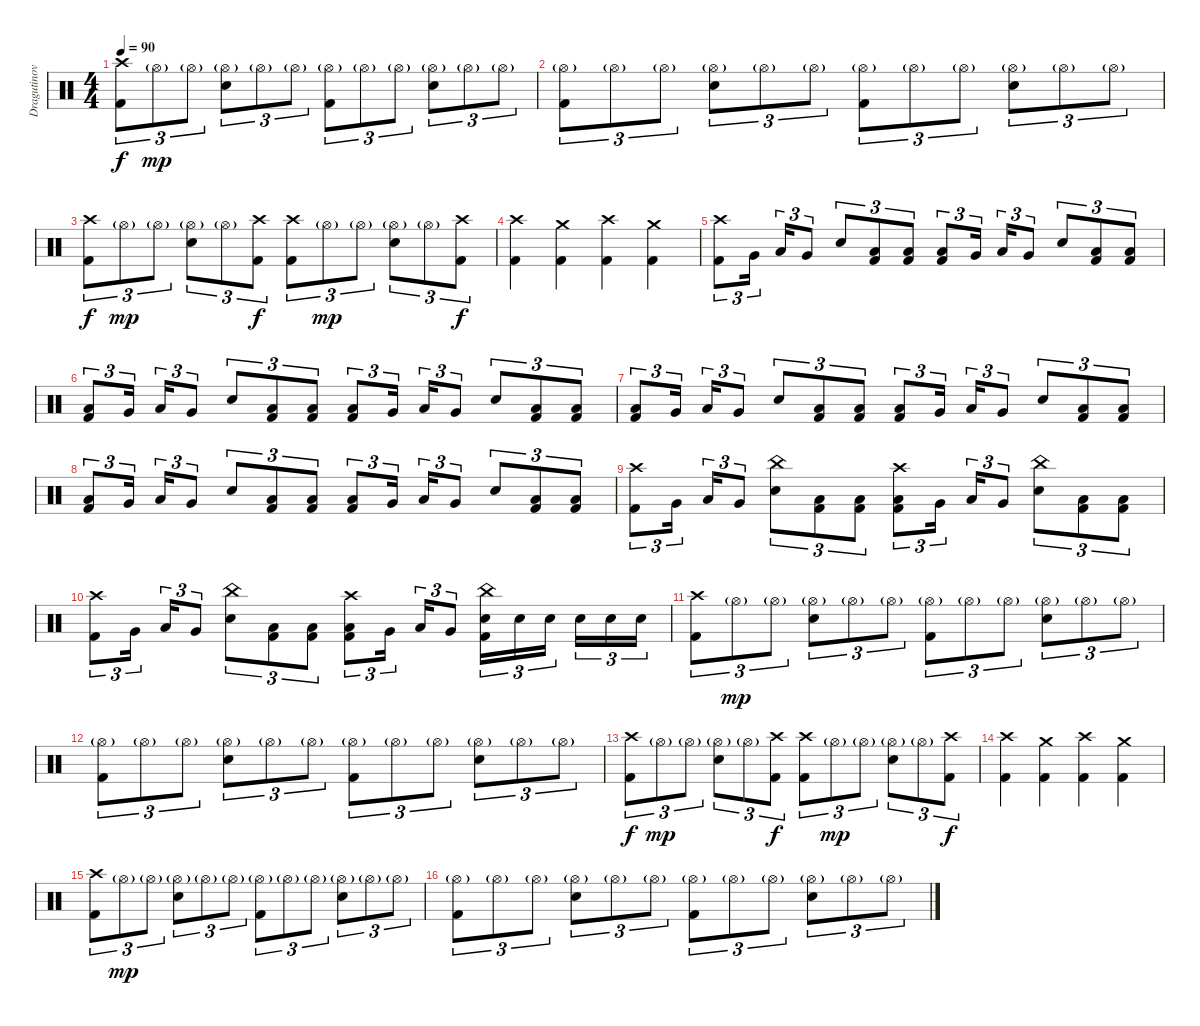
\track ("Dragutinovic" "Dragutinov") {instrument percussion}
\staff {score}
\articulation defaults
\ts (4 4)
\tempo 90
\clef neutral
\ks c
("Crash high (hit)" "Kick (hit) 2").8{tu (3 2) dy f} "Hi-Hat (open)"{g}.8{tu (3 2) dy mp} "Hi-Hat (open)"{g}.8{tu (3 2)} ("Hi-Hat (open)"{g} "Electric Snare (hit)").8{tu (3 2)} "Hi-Hat (open)"{g}.8{tu (3 2)} "Hi-Hat (open)"{g}.8{tu (3 2)} ("Hi-Hat (open)"{g} "Kick (hit) 2").8{tu (3 2)} "Hi-Hat (open)"{g}.8{tu (3 2)} "Hi-Hat (open)"{g}.8{tu (3 2)} ("Hi-Hat (open)"{g} "Electric Snare (hit)").8{tu (3 2)} "Hi-Hat (open)"{g}.8{tu (3 2)} "Hi-Hat (open)"{g}.8{tu (3 2)} |
("Hi-Hat (open)"{g} "Kick (hit) 2").8{tu (3 2)} "Hi-Hat (open)"{g}.8{tu (3 2)} "Hi-Hat (open)"{g}.8{tu (3 2)} ("Hi-Hat (open)"{g} "Electric Snare (hit)").8{tu (3 2)} "Hi-Hat (open)"{g}.8{tu (3 2)} "Hi-Hat (open)"{g}.8{tu (3 2)} ("Hi-Hat (open)"{g} "Kick (hit) 2").8{tu (3 2)} "Hi-Hat (open)"{g}.8{tu (3 2)} "Hi-Hat (open)"{g}.8{tu (3 2)} ("Hi-Hat (open)"{g} "Electric Snare (hit)").8{tu (3 2)} "Hi-Hat (open)"{g}.8{tu (3 2)} "Hi-Hat (open)"{g}.8{tu (3 2)} |
("Crash high (hit)" "Kick (hit) 2").8{tu (3 2) dy f} "Hi-Hat (open)"{g}.8{tu (3 2) dy mp} "Hi-Hat (open)"{g}.8{tu (3 2)} ("Hi-Hat (open)"{g} "Electric Snare (hit)").8{tu (3 2)} "Hi-Hat (open)"{g}.8{tu (3 2)} ("Crash high (hit)" "Kick (hit) 2").8{tu (3 2) dy f} ("Crash high (hit)" "Kick (hit) 2").8{tu (3 2)} "Hi-Hat (open)"{g}.8{tu (3 2) dy mp} "Hi-Hat (open)"{g}.8{tu (3 2)} ("Hi-Hat (open)"{g} "Electric Snare (hit)").8{tu (3 2)} "Hi-Hat (open)"{g}.8{tu (3 2)} ("Crash high (hit)" "Kick (hit) 2").8{tu (3 2) dy f} |
("Crash high (hit)" "Kick (hit) 2").4 ("Crash medium (hit)" "Kick (hit) 2").4 ("Crash high (hit)" "Kick (hit) 2").4 ("Crash medium (hit)" "Kick (hit) 2").4 |
("Crash high (hit)" "Kick (hit) 2").8{tu (3 2)} "Very Low Tom (hit)".16{tu (3 2)} "Low Tom (hit)".16{tu (3 2)} "Very Low Tom (hit)".8{tu (3 2)} "Electric Snare (hit)".8{tu (3 2)} ("Low Floor Tom (hit)" "Kick (hit) 2").8{tu (3 2)} ("Low Floor Tom (hit)" "Kick (hit) 2").8{tu (3 2)} ("Low Tom (hit)" "Kick (hit) 2").8{tu (3 2)} "Very Low Tom (hit)".16{tu (3 2)} "Low Tom (hit)".16{tu (3 2)} "Very Low Tom (hit)".8{tu (3 2)} "Electric Snare (hit)".8{tu (3 2)} ("Low Floor Tom (hit)" "Kick (hit) 2").8{tu (3 2)} ("Low Floor Tom (hit)" "Kick (hit) 2").8{tu (3 2)} |
("Low Tom (hit)" "Kick (hit) 2").8{tu (3 2)} "Very Low Tom (hit)".16{tu (3 2)} "Low Tom (hit)".16{tu (3 2)} "Very Low Tom (hit)".8{tu (3 2)} "Electric Snare (hit)".8{tu (3 2)} ("Low Floor Tom (hit)" "Kick (hit) 2").8{tu (3 2)} ("Low Floor Tom (hit)" "Kick (hit) 2").8{tu (3 2)} ("Low Tom (hit)" "Kick (hit) 2").8{tu (3 2)} "Very Low Tom (hit)".16{tu (3 2)} "Low Tom (hit)".16{tu (3 2)} "Very Low Tom (hit)".8{tu (3 2)} "Electric Snare (hit)".8{tu (3 2)} ("Low Floor Tom (hit)" "Kick (hit) 2").8{tu (3 2)} ("Low Floor Tom (hit)" "Kick (hit) 2").8{tu (3 2)} |
("Low Tom (hit)" "Kick (hit) 2").8{tu (3 2)} "Very Low Tom (hit)".16{tu (3 2)} "Low Tom (hit)".16{tu (3 2)} "Very Low Tom (hit)".8{tu (3 2)} "Electric Snare (hit)".8{tu (3 2)} ("Low Floor Tom (hit)" "Kick (hit) 2").8{tu (3 2)} ("Low Floor Tom (hit)" "Kick (hit) 2").8{tu (3 2)} ("Low Tom (hit)" "Kick (hit) 2").8{tu (3 2)} "Very Low Tom (hit)".16{tu (3 2)} "Low Tom (hit)".16{tu (3 2)} "Very Low Tom (hit)".8{tu (3 2)} "Electric Snare (hit)".8{tu (3 2)} ("Low Floor Tom (hit)" "Kick (hit) 2").8{tu (3 2)} ("Low Floor Tom (hit)" "Kick (hit) 2").8{tu (3 2)} |
("Low Tom (hit)" "Kick (hit) 2").8{tu (3 2)} "Very Low Tom (hit)".16{tu (3 2)} "Low Tom (hit)".16{tu (3 2)} "Very Low Tom (hit)".8{tu (3 2)} "Electric Snare (hit)".8{tu (3 2)} ("Low Floor Tom (hit)" "Kick (hit) 2").8{tu (3 2)} ("Low Floor Tom (hit)" "Kick (hit) 2").8{tu (3 2)} ("Low Tom (hit)" "Kick (hit) 2").8{tu (3 2)} "Very Low Tom (hit)".16{tu (3 2)} "Low Tom (hit)".16{tu (3 2)} "Very Low Tom (hit)".8{tu (3 2)} "Electric Snare (hit)".8{tu (3 2)} ("Low Floor Tom (hit)" "Kick (hit) 2").8{tu (3 2)} ("Low Floor Tom (hit)" "Kick (hit) 2").8{tu (3 2)} |
("Crash high (hit)" "Kick (hit) 2").8{tu (3 2)} "Very Low Tom (hit)".16{tu (3 2)} "Low Tom (hit)".16{tu (3 2)} "Very Low Tom (hit)".8{tu (3 2)} ("China (hit)" "Electric Snare (hit)").8{tu (3 2)} ("Low Floor Tom (hit)" "Kick (hit) 2").8{tu (3 2)} ("Low Floor Tom (hit)" "Kick (hit) 2").8{tu (3 2)} ("Crash high (hit)" "Low Tom (hit)" "Kick (hit) 2").8{tu (3 2)} "Very Low Tom (hit)".16{tu (3 2)} "Low Tom (hit)".16{tu (3 2)} "Very Low Tom (hit)".8{tu (3 2)} ("China (hit)" "Electric Snare (hit)").8{tu (3 2)} ("Low Floor Tom (hit)" "Kick (hit) 2").8{tu (3 2)} ("Low Floor Tom (hit)" "Kick (hit) 2").8{tu (3 2)} |
("Crash high (hit)" "Kick (hit) 2").8{tu (3 2)} "Very Low Tom (hit)".16{tu (3 2)} "Low Tom (hit)".16{tu (3 2)} "Very Low Tom (hit)".8{tu (3 2)} ("China (hit)" "Electric Snare (hit)").8{tu (3 2)} ("Low Floor Tom (hit)" "Kick (hit) 2").8{tu (3 2)} ("Low Floor Tom (hit)" "Kick (hit) 2").8{tu (3 2)} ("Crash high (hit)" "Low Tom (hit)" "Kick (hit) 2").8{tu (3 2)} "Very Low Tom (hit)".16{tu (3 2)} "Low Tom (hit)".16{tu (3 2)} "Very Low Tom (hit)".8{tu (3 2)} ("China (hit)" "Electric Snare (hit)" "Kick (hit) 2").16{tu (3 2)} "Electric Snare (hit)".16{tu (3 2)} "Electric Snare (hit)".16{tu (3 2)} "Electric Snare (hit)".16{tu (3 2)} "Electric Snare (hit)".16{tu (3 2)} "Electric Snare (hit)".16{tu (3 2)} |
("Crash high (hit)" "Kick (hit) 2").8{tu (3 2)} "Hi-Hat (open)"{g}.8{tu (3 2) dy mp} "Hi-Hat (open)"{g}.8{tu (3 2)} ("Hi-Hat (open)"{g} "Electric Snare (hit)").8{tu (3 2)} "Hi-Hat (open)"{g}.8{tu (3 2)} "Hi-Hat (open)"{g}.8{tu (3 2)} ("Hi-Hat (open)"{g} "Kick (hit) 2").8{tu (3 2)} "Hi-Hat (open)"{g}.8{tu (3 2)} "Hi-Hat (open)"{g}.8{tu (3 2)} ("Hi-Hat (open)"{g} "Electric Snare (hit)").8{tu (3 2)} "Hi-Hat (open)"{g}.8{tu (3 2)} "Hi-Hat (open)"{g}.8{tu (3 2)} |
("Hi-Hat (open)"{g} "Kick (hit) 2").8{tu (3 2)} "Hi-Hat (open)"{g}.8{tu (3 2)} "Hi-Hat (open)"{g}.8{tu (3 2)} ("Hi-Hat (open)"{g} "Electric Snare (hit)").8{tu (3 2)} "Hi-Hat (open)"{g}.8{tu (3 2)} "Hi-Hat (open)"{g}.8{tu (3 2)} ("Hi-Hat (open)"{g} "Kick (hit) 2").8{tu (3 2)} "Hi-Hat (open)"{g}.8{tu (3 2)} "Hi-Hat (open)"{g}.8{tu (3 2)} ("Hi-Hat (open)"{g} "Electric Snare (hit)").8{tu (3 2)} "Hi-Hat (open)"{g}.8{tu (3 2)} "Hi-Hat (open)"{g}.8{tu (3 2)} |
("Crash high (hit)" "Kick (hit) 2").8{tu (3 2) dy f} "Hi-Hat (open)"{g}.8{tu (3 2) dy mp} "Hi-Hat (open)"{g}.8{tu (3 2)} ("Hi-Hat (open)"{g} "Electric Snare (hit)").8{tu (3 2)} "Hi-Hat (open)"{g}.8{tu (3 2)} ("Crash high (hit)" "Kick (hit) 2").8{tu (3 2) dy f} ("Crash high (hit)" "Kick (hit) 2").8{tu (3 2)} "Hi-Hat (open)"{g}.8{tu (3 2) dy mp} "Hi-Hat (open)"{g}.8{tu (3 2)} ("Hi-Hat (open)"{g} "Electric Snare (hit)").8{tu (3 2)} "Hi-Hat (open)"{g}.8{tu (3 2)} ("Crash high (hit)" "Kick (hit) 2").8{tu (3 2) dy f} |
("Crash high (hit)" "Kick (hit) 2").4 ("Crash medium (hit)" "Kick (hit) 2").4 ("Crash high (hit)" "Kick (hit) 2").4 ("Crash medium (hit)" "Kick (hit) 2").4 |
("Crash high (hit)" "Kick (hit) 2").8{tu (3 2)} "Hi-Hat (open)"{g}.8{tu (3 2) dy mp} "Hi-Hat (open)"{g}.8{tu (3 2)} ("Hi-Hat (open)"{g} "Electric Snare (hit)").8{tu (3 2)} "Hi-Hat (open)"{g}.8{tu (3 2)} "Hi-Hat (open)"{g}.8{tu (3 2)} ("Hi-Hat (open)"{g} "Kick (hit) 2").8{tu (3 2)} "Hi-Hat (open)"{g}.8{tu (3 2)} "Hi-Hat (open)"{g}.8{tu (3 2)} ("Hi-Hat (open)"{g} "Electric Snare (hit)").8{tu (3 2)} "Hi-Hat (open)"{g}.8{tu (3 2)} "Hi-Hat (open)"{g}.8{tu (3 2)} |
("Hi-Hat (open)"{g} "Kick (hit) 2").8{tu (3 2)} "Hi-Hat (open)"{g}.8{tu (3 2)} "Hi-Hat (open)"{g}.8{tu (3 2)} ("Hi-Hat (open)"{g} "Electric Snare (hit)").8{tu (3 2)} "Hi-Hat (open)"{g}.8{tu (3 2)} "Hi-Hat (open)"{g}.8{tu (3 2)} ("Hi-Hat (open)"{g} "Kick (hit) 2").8{tu (3 2)} "Hi-Hat (open)"{g}.8{tu (3 2)} "Hi-Hat (open)"{g}.8{tu (3 2)} ("Hi-Hat (open)"{g} "Electric Snare (hit)").8{tu (3 2)} "Hi-Hat (open)"{g}.8{tu (3 2)} "Hi-Hat (open)"{g}.8{tu (3 2)}
